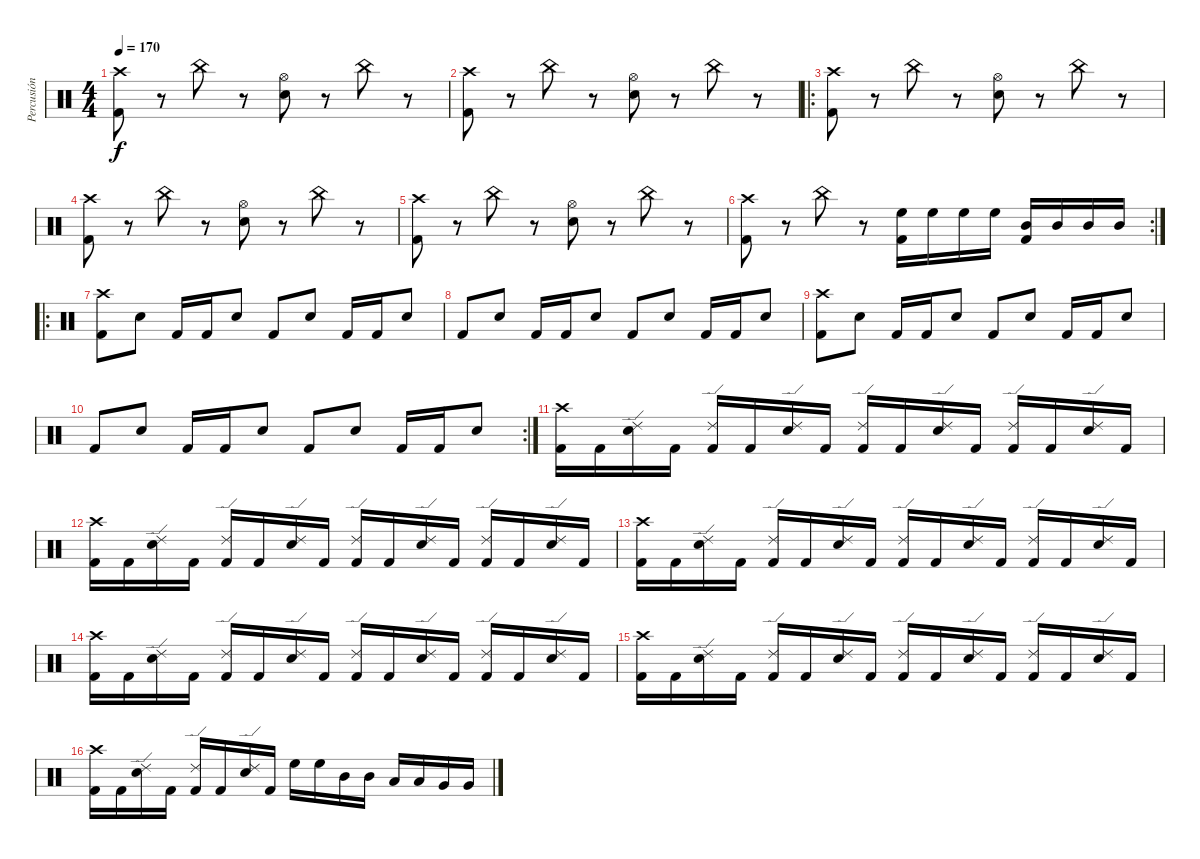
\track ("Percusión" "Percusión") {instrument percussion}
\staff {score}
\articulation defaults
\ts (4 4)
\tempo 170
\clef neutral
\ks c
("Crash high (hit)" "Kick (hit) 2").8{dy f} r.8 "China (hit)".8 r.8 ("Hi-Hat (open)" "Electric Snare (hit)").8 r.8 "China (hit)".8 r.8 |
("Crash high (hit)" "Kick (hit) 2").8 r.8 "China (hit)".8 r.8 ("Hi-Hat (open)" "Electric Snare (hit)").8 r.8 "China (hit)".8 r.8 |
\ro
("Crash high (hit)" "Kick (hit) 2").8 r.8 "China (hit)".8 r.8 ("Hi-Hat (open)" "Electric Snare (hit)").8 r.8 "China (hit)".8 r.8 |
("Crash high (hit)" "Kick (hit) 2").8 r.8 "China (hit)".8 r.8 ("Hi-Hat (open)" "Electric Snare (hit)").8 r.8 "China (hit)".8 r.8 |
("Crash high (hit)" "Kick (hit) 2").8 r.8 "China (hit)".8 r.8 ("Hi-Hat (open)" "Electric Snare (hit)").8 r.8 "China (hit)".8 r.8 |
\rc 2
("Crash high (hit)" "Kick (hit) 2").8 r.8 "China (hit)".8 r.8 ("Kick (hit) 2" "High Floor Tom (hit)").16 "High Floor Tom (hit)".16 "High Floor Tom (hit)".16 "High Floor Tom (hit)".16 ("Kick (hit) 2" "Mid Tom (hit)").16 "Mid Tom (hit)".16 "Mid Tom (hit)".16 "Mid Tom (hit)".16 |
\ro
("Crash high (hit)" "Kick (hit) 2").8 "Electric Snare (hit)".8 "Kick (hit) 2".16 "Kick (hit) 2".16 "Electric Snare (hit)".8 "Kick (hit) 2".8 "Electric Snare (hit)".8 "Kick (hit) 2".16 "Kick (hit) 2".16 "Electric Snare (hit)".8 |
"Kick (hit) 2".8 "Electric Snare (hit)".8 "Kick (hit) 2".16 "Kick (hit) 2".16 "Electric Snare (hit)".8 "Kick (hit) 2".8 "Electric Snare (hit)".8 "Kick (hit) 2".16 "Kick (hit) 2".16 "Electric Snare (hit)".8 |
("Crash high (hit)" "Kick (hit) 2").8 "Electric Snare (hit)".8 "Kick (hit) 2".16 "Kick (hit) 2".16 "Electric Snare (hit)".8 "Kick (hit) 2".8 "Electric Snare (hit)".8 "Kick (hit) 2".16 "Kick (hit) 2".16 "Electric Snare (hit)".8 |
\rc 2 "Kick (hit) 2".8 "Electric Snare (hit)".8 "Kick (hit) 2".16 "Kick (hit) 2".16 "Electric Snare (hit)".8 "Kick (hit) 2".8 "Electric Snare (hit)".8 "Kick (hit) 2".16 "Kick (hit) 2".16 "Electric Snare (hit)".8
|
("Crash high (hit)" "Kick (hit) 2").16 "Kick (hit) 2".16 ("Ride (edge) 2" "Electric Snare (hit)").16 "Kick (hit) 2".16 ("Ride (edge) 2" "Kick (hit) 2").16 "Kick (hit) 2".16 ("Ride (edge) 2" "Electric Snare (hit)").16 "Kick (hit) 2".16 ("Ride (edge) 2" "Kick (hit) 2").16 "Kick (hit) 2".16 ("Ride (edge) 2" "Electric Snare (hit)").16 "Kick (hit) 2".16 ("Ride (edge) 2" "Kick (hit) 2").16 "Kick (hit) 2".16 ("Ride (edge) 2" "Electric Snare (hit)").16 "Kick (hit) 2".16 |
("Crash high (hit)" "Kick (hit) 2").16 "Kick (hit) 2".16 ("Ride (edge) 2" "Electric Snare (hit)").16 "Kick (hit) 2".16 ("Ride (edge) 2" "Kick (hit) 2").16 "Kick (hit) 2".16 ("Ride (edge) 2" "Electric Snare (hit)").16 "Kick (hit) 2".16 ("Ride (edge) 2" "Kick (hit) 2").16 "Kick (hit) 2".16 ("Ride (edge) 2" "Electric Snare (hit)").16 "Kick (hit) 2".16 ("Ride (edge) 2" "Kick (hit) 2").16 "Kick (hit) 2".16 ("Ride (edge) 2" "Electric Snare (hit)").16 "Kick (hit) 2".16 |
("Crash high (hit)" "Kick (hit) 2").16 "Kick (hit) 2".16 ("Ride (edge) 2" "Electric Snare (hit)").16 "Kick (hit) 2".16 ("Ride (edge) 2" "Kick (hit) 2").16 "Kick (hit) 2".16 ("Ride (edge) 2" "Electric Snare (hit)").16 "Kick (hit) 2".16 ("Ride (edge) 2" "Kick (hit) 2").16 "Kick (hit) 2".16 ("Ride (edge) 2" "Electric Snare (hit)").16 "Kick (hit) 2".16 ("Ride (edge) 2" "Kick (hit) 2").16 "Kick (hit) 2".16 ("Ride (edge) 2" "Electric Snare (hit)").16 "Kick (hit) 2".16 |
("Crash high (hit)" "Kick (hit) 2").16 "Kick (hit) 2".16 ("Ride (edge) 2" "Electric Snare (hit)").16 "Kick (hit) 2".16 ("Ride (edge) 2" "Kick (hit) 2").16 "Kick (hit) 2".16 ("Ride (edge) 2" "Electric Snare (hit)").16 "Kick (hit) 2".16 ("Ride (edge) 2" "Kick (hit) 2").16 "Kick (hit) 2".16 ("Ride (edge) 2" "Electric Snare (hit)").16 "Kick (hit) 2".16 ("Ride (edge) 2" "Kick (hit) 2").16 "Kick (hit) 2".16 ("Ride (edge) 2" "Electric Snare (hit)").16 "Kick (hit) 2".16 |
("Crash high (hit)" "Kick (hit) 2").16 "Kick (hit) 2".16 ("Ride (edge) 2" "Electric Snare (hit)").16 "Kick (hit) 2".16 ("Ride (edge) 2" "Kick (hit) 2").16 "Kick (hit) 2".16 ("Ride (edge) 2" "Electric Snare (hit)").16 "Kick (hit) 2".16 ("Ride (edge) 2" "Kick (hit) 2").16 "Kick (hit) 2".16 ("Ride (edge) 2" "Electric Snare (hit)").16 "Kick (hit) 2".16 ("Ride (edge) 2" "Kick (hit) 2").16 "Kick (hit) 2".16 ("Ride (edge) 2" "Electric Snare (hit)").16 "Kick (hit) 2".16 |
("Crash high (hit)" "Kick (hit) 2").16 "Kick (hit) 2".16 ("Ride (edge) 2" "Electric Snare (hit)").16 "Kick (hit) 2".16 ("Ride (edge) 2" "Kick (hit) 2").16 "Kick (hit) 2".16 ("Ride (edge) 2" "Electric Snare (hit)").16 "Kick (hit) 2".16 "High Floor Tom (hit)".16 "High Floor Tom (hit)".16 "Mid Tom (hit)".16 "Mid Tom (hit)".16 "Low Tom (hit)".16 "Low Tom (hit)".16 "Very Low Tom (hit)".16 "Very Low Tom (hit)".16
